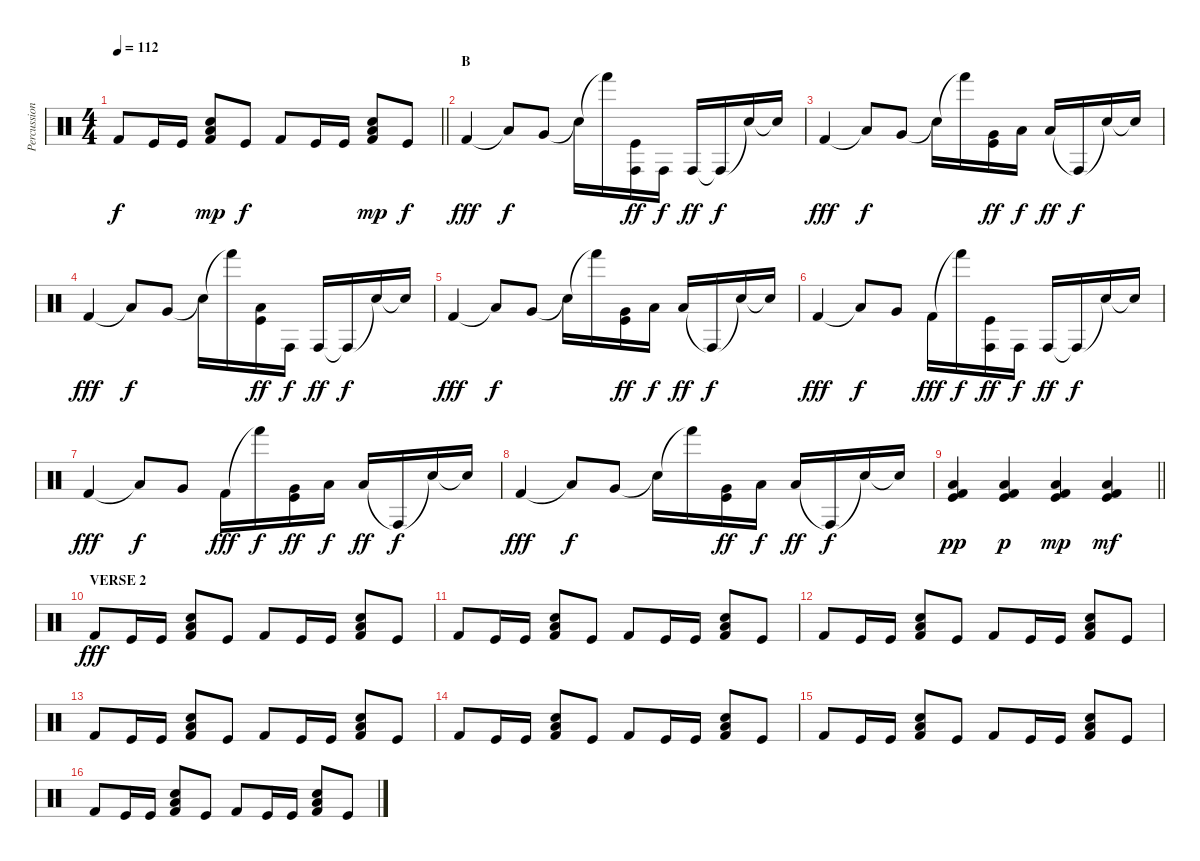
\track ("Percussion" "Percussion") {instrument percussion}
\staff {score}
\articulation defaults
\ts (4 4)
\tempo 112
\clef neutral
\barLineRight lightlight
\ks c "Kick (hit) 2".8{dy f} "Kick (hit)".16 "Kick (hit)".16
("Kick (hit) 2" "Low Floor Tom (hit)" "Hand Clap (hit)").8{dy mp} "Kick (hit)".8{dy f} "Kick (hit) 2".8 "Kick (hit)".16 "Kick (hit)".16 ("Kick (hit) 2" "Low Floor Tom (hit)" "Hand Clap (hit)").8{dy mp} "Kick (hit)".8{dy f} |
\section ("" "B")
"Kick (hit) 2".4{dy fff} "Low Floor Tom (hit)"{t}.8{dy f} "Very Low Tom (hit)".8 "Snare (hit)"{t}.16 "Hand (hit)"{t}.16 ("Conga high (hit)" "Kick (hit)").16{dy ff} "Conga high (hit)".16{dy f} "Conga high (hit)".16{dy ff} "Conga high (hit)"{t}.16{dy f} "Snare (hit)"{t}.16 "Snare (hit)"{t}.16 |
"Kick (hit) 2".4{dy fff} "Low Floor Tom (hit)"{t}.8{dy f} "Very Low Tom (hit)".8 "Snare (hit)"{t}.16 "Hand (hit)"{t}.16 ("Very Low Tom (hit)" "Kick (hit)").16{dy ff} "Low Tom (hit)".16{dy f} "Low Tom (hit)".16{dy ff} "Conga high (hit)"{t}.16{dy f} "Snare (hit)"{t}.16 "Snare (hit)"{t}.16 |
"Kick (hit) 2".4{dy fff} "Low Floor Tom (hit)"{t}.8{dy f} "Very Low Tom (hit)".8 "Snare (hit)"{t}.16 "Hand (hit)"{t}.16 ("Low Floor Tom (hit)" "Kick (hit)").16{dy ff} "Conga high (hit)".16{dy f} "Conga high (hit)".16{dy ff} "Conga high (hit)"{t}.16{dy f} "Snare (hit)"{t}.16 "Snare (hit)"{t}.16 |
"Kick (hit) 2".4{dy fff} "Low Floor Tom (hit)"{t}.8{dy f} "Very Low Tom (hit)".8 "Snare (hit)"{t}.16 "Hand (hit)"{t}.16 ("Very Low Tom (hit)" "Kick (hit)").16{dy ff} "Low Tom (hit)".16{dy f} "Low Tom (hit)".16{dy ff} "Conga high (hit)"{t}.16{dy f} "Snare (hit)"{t}.16 "Snare (hit)"{t}.16 |
"Kick (hit) 2".4{dy fff} "Low Floor Tom (hit)"{t}.8{dy f} "Very Low Tom (hit)".8 "Kick (hit) 2".16{dy fff} "Hand (hit)"{t}.16{dy f} ("Conga high (hit)" "Kick (hit)").16{dy ff} "Conga high (hit)".16{dy f} "Conga high (hit)".16{dy ff} "Conga high (hit)"{t}.16{dy f} "Snare (hit)"{t}.16 "Snare (hit)"{t}.16 |
"Kick (hit) 2".4{dy fff} "Low Floor Tom (hit)"{t}.8{dy f} "Very Low Tom (hit)".8 "Kick (hit) 2".16{dy fff} "Hand (hit)"{t}.16{dy f} ("Very Low Tom (hit)" "Kick (hit)").16{dy ff} "Low Tom (hit)".16{dy f} "Low Tom (hit)".16{dy ff} "Conga high (hit)"{t}.16{dy f} "Snare (hit)"{t}.16 "Snare (hit)"{t}.16 |
"Kick (hit) 2".4{dy fff} "Low Floor Tom (hit)"{t}.8{dy f} "Very Low Tom (hit)".8 "Snare (hit)"{t}.16 "Hand (hit)"{t}.16 ("Very Low Tom (hit)" "Kick (hit)").16{dy ff} "Low Tom (hit)".16{dy f} "Low Tom (hit)".16{dy ff} "Conga high (hit)"{t}.16{dy f} "Snare (hit)"{t}.16 "Snare (hit)"{t}.16 |
\barLineRight lightlight
("Kick (hit) 2" "Kick (hit)" "Low Floor Tom (hit)").4{dy pp} ("Kick (hit) 2" "Kick (hit)" "Low Floor Tom (hit)").4{dy p} ("Kick (hit) 2" "Kick (hit)" "Low Floor Tom (hit)").4{dy mp} ("Kick (hit) 2" "Kick (hit)" "Low Floor Tom (hit)").4{dy mf} |
\section ("" "VERSE 2")
"Kick (hit) 2".8{dy fff} "Kick (hit)".16 "Kick (hit)".16 ("Kick (hit) 2" "Low Floor Tom (hit)" "Hand Clap (hit)").8 "Kick (hit)".8 "Kick (hit) 2".8 "Kick (hit)".16 "Kick (hit)".16 ("Kick (hit) 2" "Low Floor Tom (hit)" "Hand Clap (hit)").8 "Kick (hit)".8 |
"Kick (hit) 2".8 "Kick (hit)".16 "Kick (hit)".16 ("Kick (hit) 2" "Low Floor Tom (hit)" "Hand Clap (hit)").8 "Kick (hit)".8 "Kick (hit) 2".8 "Kick (hit)".16 "Kick (hit)".16 ("Kick (hit) 2" "Low Floor Tom (hit)" "Hand Clap (hit)").8 "Kick (hit)".8 |
"Kick (hit) 2".8 "Kick (hit)".16 "Kick (hit)".16 ("Kick (hit) 2" "Low Floor Tom (hit)" "Hand Clap (hit)").8 "Kick (hit)".8 "Kick (hit) 2".8 "Kick (hit)".16 "Kick (hit)".16 ("Kick (hit) 2" "Low Floor Tom (hit)" "Hand Clap (hit)").8 "Kick (hit)".8 |
"Kick (hit) 2".8 "Kick (hit)".16 "Kick (hit)".16 ("Kick (hit) 2" "Low Floor Tom (hit)" "Hand Clap (hit)").8 "Kick (hit)".8 "Kick (hit) 2".8 "Kick (hit)".16 "Kick (hit)".16 ("Kick (hit) 2" "Low Floor Tom (hit)" "Hand Clap (hit)").8 "Kick (hit)".8 |
"Kick (hit) 2".8 "Kick (hit)".16 "Kick (hit)".16 ("Kick (hit) 2" "Low Floor Tom (hit)" "Hand Clap (hit)").8 "Kick (hit)".8 "Kick (hit) 2".8 "Kick (hit)".16 "Kick (hit)".16 ("Kick (hit) 2" "Low Floor Tom (hit)" "Hand Clap (hit)").8 "Kick (hit)".8 |
"Kick (hit) 2".8 "Kick (hit)".16 "Kick (hit)".16 ("Kick (hit) 2" "Low Floor Tom (hit)" "Hand Clap (hit)").8 "Kick (hit)".8 "Kick (hit) 2".8 "Kick (hit)".16 "Kick (hit)".16 ("Kick (hit) 2" "Low Floor Tom (hit)" "Hand Clap (hit)").8 "Kick (hit)".8 |
"Kick (hit) 2".8 "Kick (hit)".16 "Kick (hit)".16 ("Kick (hit) 2" "Low Floor Tom (hit)" "Hand Clap (hit)").8 "Kick (hit)".8 "Kick (hit) 2".8 "Kick (hit)".16 "Kick (hit)".16 ("Kick (hit) 2" "Low Floor Tom (hit)" "Hand Clap (hit)").8 "Kick (hit)".8
